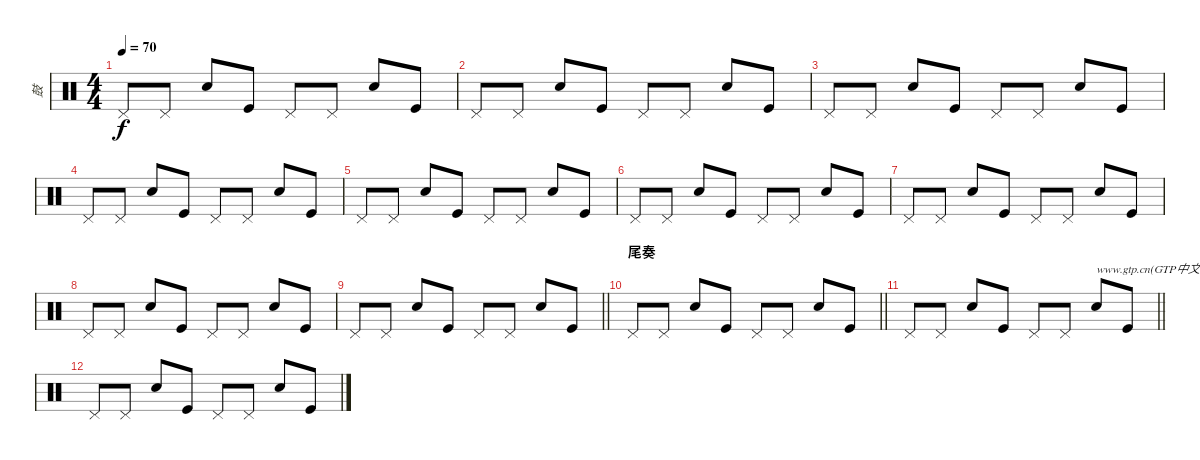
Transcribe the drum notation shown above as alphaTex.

\track ("鼓" "鼓") {instrument percussion}
\staff {score}
\articulation defaults
\ts (4 4)
\tempo 70
\clef neutral
\ks c "Pedal Hi-Hat (hit)".8{dy f} "Pedal Hi-Hat (hit)".8 "Snare (hit) 2".8 "Kick (hit)".8 "Pedal Hi-Hat (hit)".8 "Pedal Hi-Hat (hit)".8 "Snare (hit) 2".8 "Kick (hit)".8
|
"Pedal Hi-Hat (hit)".8 "Pedal Hi-Hat (hit)".8 "Snare (hit) 2".8 "Kick (hit)".8 "Pedal Hi-Hat (hit)".8 "Pedal Hi-Hat (hit)".8 "Snare (hit) 2".8 "Kick (hit)".8 |
"Pedal Hi-Hat (hit)".8 "Pedal Hi-Hat (hit)".8 "Snare (hit) 2".8 "Kick (hit)".8 "Pedal Hi-Hat (hit)".8 "Pedal Hi-Hat (hit)".8 "Snare (hit) 2".8 "Kick (hit)".8 |
"Pedal Hi-Hat (hit)".8 "Pedal Hi-Hat (hit)".8 "Snare (hit) 2".8 "Kick (hit)".8 "Pedal Hi-Hat (hit)".8 "Pedal Hi-Hat (hit)".8 "Snare (hit) 2".8 "Kick (hit)".8 |
"Pedal Hi-Hat (hit)".8 "Pedal Hi-Hat (hit)".8 "Snare (hit) 2".8 "Kick (hit)".8 "Pedal Hi-Hat (hit)".8 "Pedal Hi-Hat (hit)".8 "Snare (hit) 2".8 "Kick (hit)".8 |
"Pedal Hi-Hat (hit)".8 "Pedal Hi-Hat (hit)".8 "Snare (hit) 2".8 "Kick (hit)".8 "Pedal Hi-Hat (hit)".8 "Pedal Hi-Hat (hit)".8 "Snare (hit) 2".8 "Kick (hit)".8 |
"Pedal Hi-Hat (hit)".8 "Pedal Hi-Hat (hit)".8 "Snare (hit) 2".8 "Kick (hit)".8 "Pedal Hi-Hat (hit)".8 "Pedal Hi-Hat (hit)".8 "Snare (hit) 2".8 "Kick (hit)".8 |
"Pedal Hi-Hat (hit)".8 "Pedal Hi-Hat (hit)".8 "Snare (hit) 2".8 "Kick (hit)".8 "Pedal Hi-Hat (hit)".8 "Pedal Hi-Hat (hit)".8 "Snare (hit) 2".8 "Kick (hit)".8 |
\barLineRight lightlight "Pedal Hi-Hat (hit)".8 "Pedal Hi-Hat (hit)".8 "Snare (hit) 2".8 "Kick (hit)".8 "Pedal Hi-Hat (hit)".8 "Pedal Hi-Hat (hit)".8 "Snare (hit) 2".8 "Kick (hit)".8
|
\section ("" "尾奏")
\barLineRight lightlight "Pedal Hi-Hat (hit)".8 "Pedal Hi-Hat (hit)".8 "Snare (hit) 2".8 "Kick (hit)".8 "Pedal Hi-Hat (hit)".8 "Pedal Hi-Hat (hit)".8 "Snare (hit) 2".8 "Kick (hit)".8
|
\barLineRight lightlight "Pedal Hi-Hat (hit)".8 "Pedal Hi-Hat (hit)".8 "Snare (hit) 2".8 "Kick (hit)".8 "Pedal Hi-Hat (hit)".8 "Pedal Hi-Hat (hit)".8 "Snare (hit) 2".8{txt "www.gtp.cn(GTP中文网)您提供优秀的GTP"} "Kick (hit)".8
|
"Pedal Hi-Hat (hit)".8 "Pedal Hi-Hat (hit)".8 "Snare (hit) 2".8 "Kick (hit)".8 "Pedal Hi-Hat (hit)".8 "Pedal Hi-Hat (hit)".8 "Snare (hit) 2".8 "Kick (hit)".8
